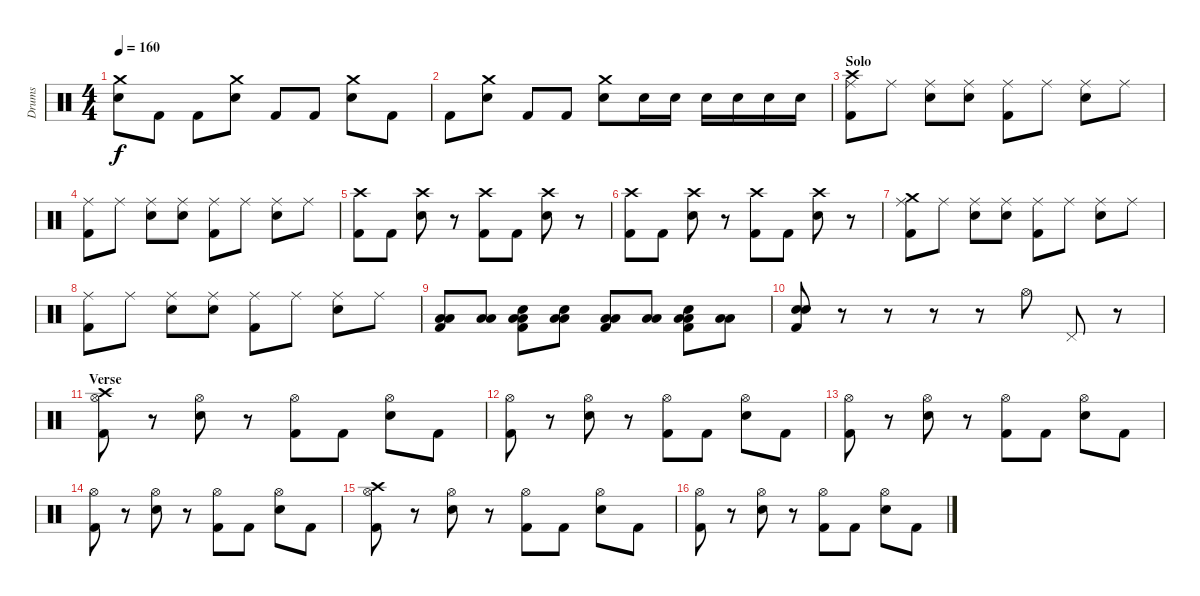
\track ("Drums" "Drums") {instrument percussion}
\staff {score}
\articulation defaults
\ts (4 4)
\tempo 160
\clef neutral
\ks c
("Crash medium (hit)" "Snare (hit) 2").8{dy f} "Kick (hit) 2".8 "Kick (hit) 2".8 ("Crash medium (hit)" "Snare (hit) 2").8 "Kick (hit) 2".8 "Kick (hit) 2".8 ("Crash medium (hit)" "Snare (hit) 2").8 "Kick (hit) 2".8 |
"Kick (hit) 2".8 ("Crash medium (hit)" "Snare (hit) 2").8 "Kick (hit) 2".8 "Kick (hit) 2".8 ("Crash medium (hit)" "Snare (hit) 2").8 "Snare (hit) 2".16 "Snare (hit) 2".16 "Snare (hit) 2".16 "Snare (hit) 2".16 "Snare (hit) 2".16 "Snare (hit) 2".16 |
\section ("" "Solo")
("Ride (middle)" "Crash high (hit)" "Kick (hit) 2").8 "Ride (middle)".8 ("Ride (middle)" "Snare (hit) 2").8 ("Ride (middle)" "Snare (hit) 2").8 ("Ride (middle)" "Kick (hit) 2").8 "Ride (middle)".8 ("Ride (middle)" "Snare (hit) 2").8 "Ride (middle)".8 |
("Ride (middle)" "Kick (hit) 2").8 "Ride (middle)".8 ("Ride (middle)" "Snare (hit) 2").8 ("Ride (middle)" "Snare (hit) 2").8 ("Ride (middle)" "Kick (hit) 2").8 "Ride (middle)".8 ("Ride (middle)" "Snare (hit) 2").8 "Ride (middle)".8 |
("Crash high (hit)" "Kick (hit) 2").8 "Kick (hit) 2".8 ("Crash high (hit)" "Snare (hit) 2").8 r.8 ("Crash high (hit)" "Kick (hit) 2").8 "Kick (hit) 2".8 ("Crash high (hit)" "Snare (hit) 2").8 r.8 |
("Crash high (hit)" "Kick (hit) 2").8 "Kick (hit) 2".8 ("Crash high (hit)" "Snare (hit) 2").8 r.8 ("Crash high (hit)" "Kick (hit) 2").8 "Kick (hit) 2".8 ("Crash high (hit)" "Snare (hit) 2").8 r.8 |
("Ride (middle)" "Crash medium (hit)" "Kick (hit) 2").8 "Ride (middle)".8 ("Ride (middle)" "Snare (hit) 2").8 ("Ride (middle)" "Snare (hit) 2").8 ("Ride (middle)" "Kick (hit) 2").8 "Ride (middle)".8 ("Ride (middle)" "Snare (hit) 2").8 "Ride (middle)".8 |
("Ride (middle)" "Kick (hit) 2").8 "Ride (middle)".8 ("Ride (middle)" "Snare (hit) 2").8 ("Ride (middle)" "Snare (hit) 2").8 ("Ride (middle)" "Kick (hit) 2").8 "Ride (middle)".8 ("Ride (middle)" "Snare (hit) 2").8 "Ride (middle)".8 |
("Low Tom (hit)" "Low Floor Tom (hit)" "Kick (hit) 2").8 ("Low Tom (hit)" "Low Floor Tom (hit)").8 ("Low Tom (hit)" "Low Floor Tom (hit)" "Snare (hit) 2" "Kick (hit) 2").8 ("Low Tom (hit)" "Low Floor Tom (hit)" "Snare (hit) 2").8 ("Low Tom (hit)" "Low Floor Tom (hit)" "Kick (hit) 2").8 ("Low Tom (hit)" "Low Floor Tom (hit)").8 ("Low Tom (hit)" "Low Floor Tom (hit)" "Snare (hit) 2" "Kick (hit) 2").8 ("Low Tom (hit)" "Low Floor Tom (hit)").8 |
("Snare (hit) 2" "Snare (hit) 2" "Kick (hit) 2").8 r.8 r.8 r.8 r.8 "Hi-Hat (open)".8 "Pedal Hi-Hat (hit)".8 r.8 |
\section ("" "Verse")
("Hi-Hat (open)" "Crash high (hit)" "Kick (hit) 2").8 r.8 ("Hi-Hat (open)" "Snare (hit) 2").8 r.8 ("Hi-Hat (open)" "Kick (hit) 2").8 "Kick (hit) 2".8 ("Hi-Hat (open)" "Snare (hit) 2").8 "Kick (hit) 2".8 |
("Hi-Hat (open)" "Kick (hit) 2").8 r.8 ("Hi-Hat (open)" "Snare (hit) 2").8 r.8 ("Hi-Hat (open)" "Kick (hit) 2").8 "Kick (hit) 2".8 ("Hi-Hat (open)" "Snare (hit) 2").8 "Kick (hit) 2".8 |
("Hi-Hat (open)" "Kick (hit) 2").8 r.8 ("Hi-Hat (open)" "Snare (hit) 2").8 r.8 ("Hi-Hat (open)" "Kick (hit) 2").8 "Kick (hit) 2".8 ("Hi-Hat (open)" "Snare (hit) 2").8 "Kick (hit) 2".8 |
("Hi-Hat (open)" "Kick (hit) 2").8 r.8 ("Hi-Hat (open)" "Snare (hit) 2").8 r.8 ("Hi-Hat (open)" "Kick (hit) 2").8 "Kick (hit) 2".8 ("Hi-Hat (open)" "Snare (hit) 2").8 "Kick (hit) 2".8 |
("Hi-Hat (open)" "Crash high (hit)" "Kick (hit) 2").8 r.8 ("Hi-Hat (open)" "Snare (hit) 2").8 r.8 ("Hi-Hat (open)" "Kick (hit) 2").8 "Kick (hit) 2".8 ("Hi-Hat (open)" "Snare (hit) 2").8 "Kick (hit) 2".8 |
("Hi-Hat (open)" "Kick (hit) 2").8 r.8 ("Hi-Hat (open)" "Snare (hit) 2").8 r.8 ("Hi-Hat (open)" "Kick (hit) 2").8 "Kick (hit) 2".8 ("Hi-Hat (open)" "Snare (hit) 2").8 "Kick (hit) 2".8
